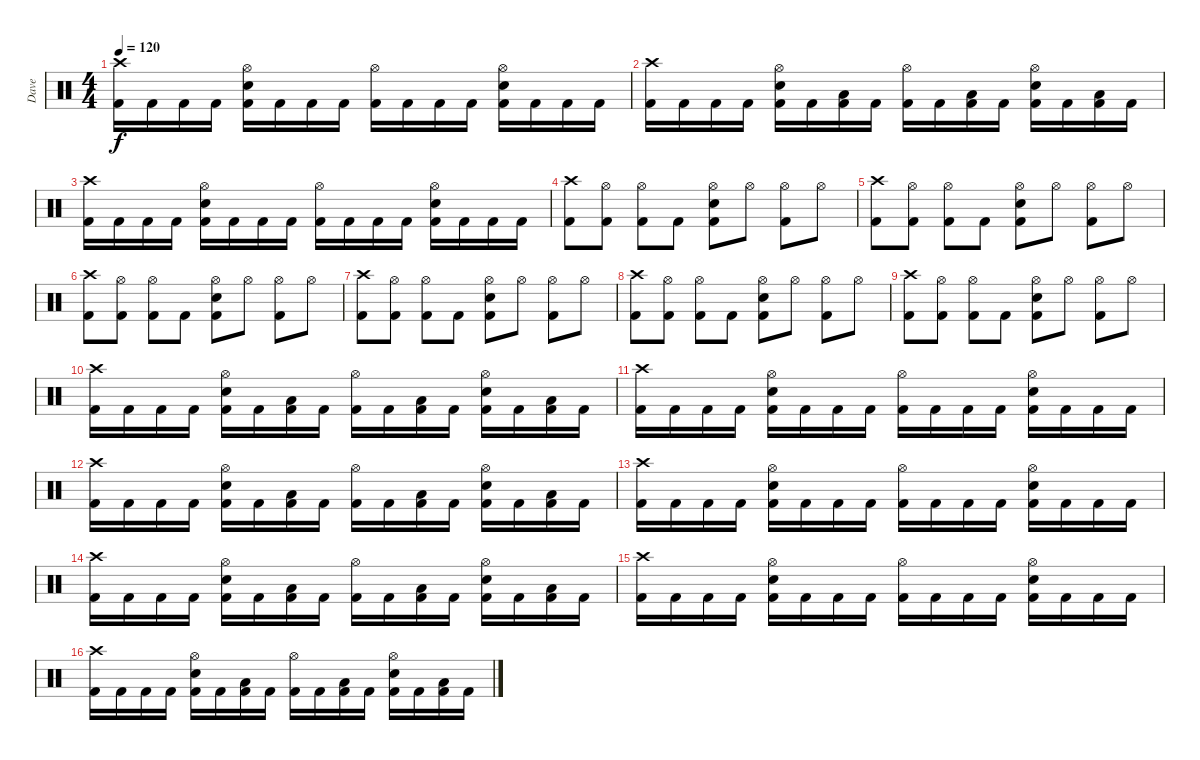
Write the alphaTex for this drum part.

\track ("Dave" "Dave") {instrument percussion}
\staff {score}
\articulation defaults
\ts (4 4)
\tempo 120
\clef neutral
\ks c
("Kick (hit) 2" "Crash high (hit)").16{dy f} "Kick (hit) 2".16 "Kick (hit) 2".16 "Kick (hit) 2".16 ("Kick (hit) 2" "Snare (hit) 2" "Hi-Hat (open)").16 "Kick (hit) 2".16 "Kick (hit) 2".16 "Kick (hit) 2".16 ("Kick (hit) 2" "Hi-Hat (open)").16 "Kick (hit) 2".16 "Kick (hit) 2".16 "Kick (hit) 2".16 ("Kick (hit) 2" "Snare (hit) 2" "Hi-Hat (open)").16 "Kick (hit) 2".16 "Kick (hit) 2".16 "Kick (hit) 2".16 |
("Kick (hit) 2" "Crash high (hit)").16 "Kick (hit) 2".16 "Kick (hit) 2".16 "Kick (hit) 2".16 ("Kick (hit) 2" "Snare (hit) 2" "Hi-Hat (open)").16 "Kick (hit) 2".16 ("Kick (hit) 2" "Low Tom (hit)").16 "Kick (hit) 2".16 ("Kick (hit) 2" "Hi-Hat (open)").16 "Kick (hit) 2".16 ("Kick (hit) 2" "Low Tom (hit)").16 "Kick (hit) 2".16 ("Kick (hit) 2" "Snare (hit) 2" "Hi-Hat (open)").16 "Kick (hit) 2".16 ("Kick (hit) 2" "Low Floor Tom (hit)").16 "Kick (hit) 2".16 |
("Kick (hit) 2" "Crash high (hit)").16 "Kick (hit) 2".16 "Kick (hit) 2".16 "Kick (hit) 2".16 ("Kick (hit) 2" "Snare (hit) 2" "Hi-Hat (open)").16 "Kick (hit) 2".16 "Kick (hit) 2".16 "Kick (hit) 2".16 ("Kick (hit) 2" "Hi-Hat (open)").16 "Kick (hit) 2".16 "Kick (hit) 2".16 "Kick (hit) 2".16 ("Kick (hit) 2" "Snare (hit) 2" "Hi-Hat (open)").16 "Kick (hit) 2".16 "Kick (hit) 2".16 "Kick (hit) 2".16 |
("Kick (hit) 2" "Crash high (hit)").8 ("Kick (hit) 2" "Hi-Hat (open)").8 ("Kick (hit) 2" "Hi-Hat (open)").8 "Kick (hit) 2".8 ("Kick (hit) 2" "Snare (hit) 2" "Hi-Hat (open)").8 "Hi-Hat (open)".8 ("Kick (hit) 2" "Hi-Hat (open)").8 "Hi-Hat (open)".8 |
("Kick (hit) 2" "Crash high (hit)").8 ("Kick (hit) 2" "Hi-Hat (open)").8 ("Kick (hit) 2" "Hi-Hat (open)").8 "Kick (hit) 2".8 ("Kick (hit) 2" "Snare (hit) 2" "Hi-Hat (open)").8 "Hi-Hat (open)".8 ("Kick (hit) 2" "Hi-Hat (open)").8 "Hi-Hat (open)".8 |
("Kick (hit) 2" "Crash high (hit)").8 ("Kick (hit) 2" "Hi-Hat (open)").8 ("Kick (hit) 2" "Hi-Hat (open)").8 "Kick (hit) 2".8 ("Kick (hit) 2" "Snare (hit) 2" "Hi-Hat (open)").8 "Hi-Hat (open)".8 ("Kick (hit) 2" "Hi-Hat (open)").8 "Hi-Hat (open)".8 |
("Kick (hit) 2" "Crash high (hit)").8 ("Kick (hit) 2" "Hi-Hat (open)").8 ("Kick (hit) 2" "Hi-Hat (open)").8 "Kick (hit) 2".8 ("Kick (hit) 2" "Snare (hit) 2" "Hi-Hat (open)").8 "Hi-Hat (open)".8 ("Kick (hit) 2" "Hi-Hat (open)").8 "Hi-Hat (open)".8 |
("Kick (hit) 2" "Crash high (hit)").8 ("Kick (hit) 2" "Hi-Hat (open)").8 ("Kick (hit) 2" "Hi-Hat (open)").8 "Kick (hit) 2".8 ("Kick (hit) 2" "Snare (hit) 2" "Hi-Hat (open)").8 "Hi-Hat (open)".8 ("Kick (hit) 2" "Hi-Hat (open)").8 "Hi-Hat (open)".8 |
("Kick (hit) 2" "Crash high (hit)").8 ("Kick (hit) 2" "Hi-Hat (open)").8 ("Kick (hit) 2" "Hi-Hat (open)").8 "Kick (hit) 2".8 ("Kick (hit) 2" "Snare (hit) 2" "Hi-Hat (open)").8 "Hi-Hat (open)".8 ("Kick (hit) 2" "Hi-Hat (open)").8 "Hi-Hat (open)".8 |
("Kick (hit) 2" "Crash high (hit)").16 "Kick (hit) 2".16 "Kick (hit) 2".16 "Kick (hit) 2".16 ("Kick (hit) 2" "Snare (hit) 2" "Hi-Hat (open)").16 "Kick (hit) 2".16 ("Kick (hit) 2" "Low Tom (hit)").16 "Kick (hit) 2".16 ("Kick (hit) 2" "Hi-Hat (open)").16 "Kick (hit) 2".16 ("Kick (hit) 2" "Low Tom (hit)").16 "Kick (hit) 2".16 ("Kick (hit) 2" "Snare (hit) 2" "Hi-Hat (open)").16 "Kick (hit) 2".16 ("Kick (hit) 2" "Low Floor Tom (hit)").16 "Kick (hit) 2".16 |
("Kick (hit) 2" "Crash high (hit)").16 "Kick (hit) 2".16 "Kick (hit) 2".16 "Kick (hit) 2".16 ("Kick (hit) 2" "Snare (hit) 2" "Hi-Hat (open)").16 "Kick (hit) 2".16 "Kick (hit) 2".16 "Kick (hit) 2".16 ("Kick (hit) 2" "Hi-Hat (open)").16 "Kick (hit) 2".16 "Kick (hit) 2".16 "Kick (hit) 2".16 ("Kick (hit) 2" "Snare (hit) 2" "Hi-Hat (open)").16 "Kick (hit) 2".16 "Kick (hit) 2".16 "Kick (hit) 2".16 |
("Kick (hit) 2" "Crash high (hit)").16 "Kick (hit) 2".16 "Kick (hit) 2".16 "Kick (hit) 2".16 ("Kick (hit) 2" "Snare (hit) 2" "Hi-Hat (open)").16 "Kick (hit) 2".16 ("Kick (hit) 2" "Low Tom (hit)").16 "Kick (hit) 2".16 ("Kick (hit) 2" "Hi-Hat (open)").16 "Kick (hit) 2".16 ("Kick (hit) 2" "Low Tom (hit)").16 "Kick (hit) 2".16 ("Kick (hit) 2" "Snare (hit) 2" "Hi-Hat (open)").16 "Kick (hit) 2".16 ("Kick (hit) 2" "Low Floor Tom (hit)").16 "Kick (hit) 2".16 |
("Kick (hit) 2" "Crash high (hit)").16 "Kick (hit) 2".16 "Kick (hit) 2".16 "Kick (hit) 2".16 ("Kick (hit) 2" "Snare (hit) 2" "Hi-Hat (open)").16 "Kick (hit) 2".16 "Kick (hit) 2".16 "Kick (hit) 2".16 ("Kick (hit) 2" "Hi-Hat (open)").16 "Kick (hit) 2".16 "Kick (hit) 2".16 "Kick (hit) 2".16 ("Kick (hit) 2" "Snare (hit) 2" "Hi-Hat (open)").16 "Kick (hit) 2".16 "Kick (hit) 2".16 "Kick (hit) 2".16 |
("Kick (hit) 2" "Crash high (hit)").16 "Kick (hit) 2".16 "Kick (hit) 2".16 "Kick (hit) 2".16 ("Kick (hit) 2" "Snare (hit) 2" "Hi-Hat (open)").16 "Kick (hit) 2".16 ("Kick (hit) 2" "Low Tom (hit)").16 "Kick (hit) 2".16 ("Kick (hit) 2" "Hi-Hat (open)").16 "Kick (hit) 2".16 ("Kick (hit) 2" "Low Tom (hit)").16 "Kick (hit) 2".16 ("Kick (hit) 2" "Snare (hit) 2" "Hi-Hat (open)").16 "Kick (hit) 2".16 ("Kick (hit) 2" "Low Floor Tom (hit)").16 "Kick (hit) 2".16 |
("Kick (hit) 2" "Crash high (hit)").16 "Kick (hit) 2".16 "Kick (hit) 2".16 "Kick (hit) 2".16 ("Kick (hit) 2" "Snare (hit) 2" "Hi-Hat (open)").16 "Kick (hit) 2".16 "Kick (hit) 2".16 "Kick (hit) 2".16 ("Kick (hit) 2" "Hi-Hat (open)").16 "Kick (hit) 2".16 "Kick (hit) 2".16 "Kick (hit) 2".16 ("Kick (hit) 2" "Snare (hit) 2" "Hi-Hat (open)").16 "Kick (hit) 2".16 "Kick (hit) 2".16 "Kick (hit) 2".16 |
("Kick (hit) 2" "Crash high (hit)").16 "Kick (hit) 2".16 "Kick (hit) 2".16 "Kick (hit) 2".16 ("Kick (hit) 2" "Snare (hit) 2" "Hi-Hat (open)").16 "Kick (hit) 2".16 ("Kick (hit) 2" "Low Tom (hit)").16 "Kick (hit) 2".16 ("Kick (hit) 2" "Hi-Hat (open)").16 "Kick (hit) 2".16 ("Kick (hit) 2" "Low Tom (hit)").16 "Kick (hit) 2".16 ("Kick (hit) 2" "Snare (hit) 2" "Hi-Hat (open)").16 "Kick (hit) 2".16 ("Kick (hit) 2" "Low Floor Tom (hit)").16 "Kick (hit) 2".16
